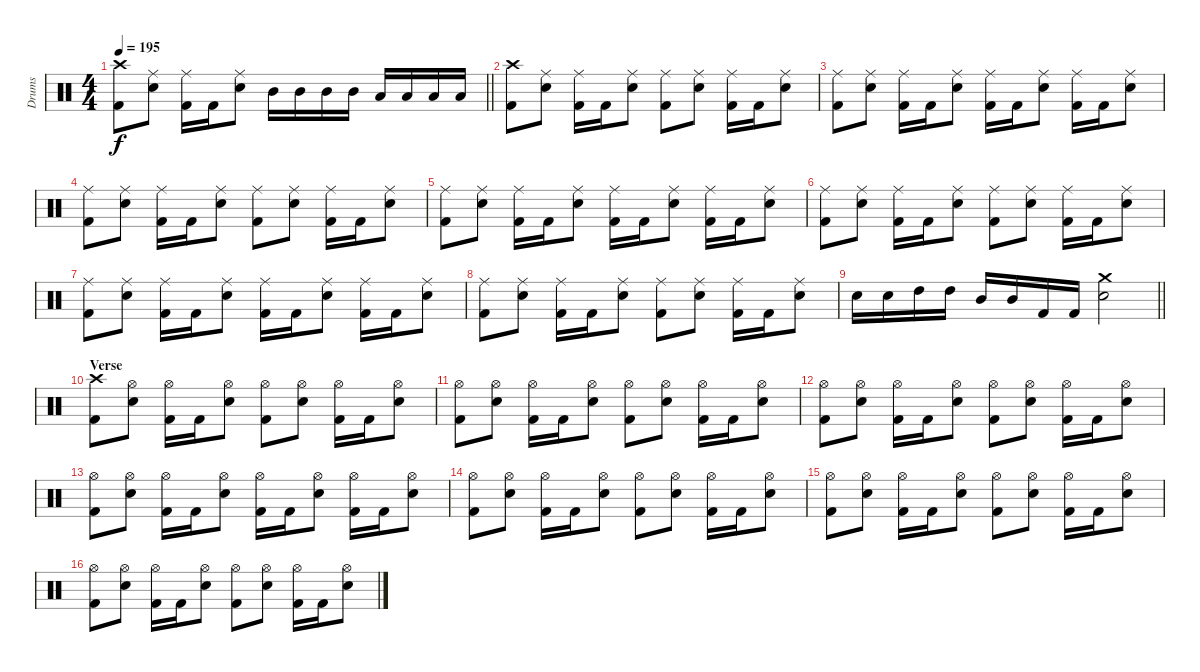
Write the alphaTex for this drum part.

\track ("Drums" "Drums") {instrument percussion}
\staff {score}
\articulation defaults
\ts (4 4)
\tempo 195
\clef neutral
\barLineRight lightlight
\ks c
("Crash high (hit)" "Kick (hit) 2").8{dy f} ("Ride (middle)" "Electric Snare (hit)").8 ("Ride (middle)" "Kick (hit) 2").16 "Kick (hit) 2".16 ("Ride (middle)" "Electric Snare (hit)").8 "Mid Tom (hit)".16 "Mid Tom (hit)".16 "Mid Tom (hit)".16 "Mid Tom (hit)".16 "Low Tom (hit)".16 "Low Tom (hit)".16 "Low Tom (hit)".16 "Low Tom (hit)".16 |
\section ("" "")
("Crash high (hit)" "Kick (hit) 2").8 ("Ride (middle)" "Electric Snare (hit)").8 ("Ride (middle)" "Kick (hit) 2").16 "Kick (hit) 2".16 ("Ride (middle)" "Electric Snare (hit)").8 ("Ride (middle)" "Kick (hit) 2").8 ("Ride (middle)" "Electric Snare (hit)").8 ("Ride (middle)" "Kick (hit) 2").16 "Kick (hit) 2".16 ("Ride (middle)" "Electric Snare (hit)").8 |
("Ride (middle)" "Kick (hit) 2").8 ("Ride (middle)" "Electric Snare (hit)").8 ("Ride (middle)" "Kick (hit) 2").16 "Kick (hit) 2".16 ("Ride (middle)" "Electric Snare (hit)").8 ("Ride (middle)" "Kick (hit) 2").16 "Kick (hit) 2".16 ("Ride (middle)" "Electric Snare (hit)").8 ("Ride (middle)" "Kick (hit) 2").16 "Kick (hit) 2".16 ("Ride (middle)" "Electric Snare (hit)").8 |
("Ride (middle)" "Kick (hit) 2").8 ("Ride (middle)" "Electric Snare (hit)").8 ("Ride (middle)" "Kick (hit) 2").16 "Kick (hit) 2".16 ("Ride (middle)" "Electric Snare (hit)").8 ("Ride (middle)" "Kick (hit) 2").8 ("Ride (middle)" "Electric Snare (hit)").8 ("Ride (middle)" "Kick (hit) 2").16 "Kick (hit) 2".16 ("Ride (middle)" "Electric Snare (hit)").8 |
("Ride (middle)" "Kick (hit) 2").8 ("Ride (middle)" "Electric Snare (hit)").8 ("Ride (middle)" "Kick (hit) 2").16 "Kick (hit) 2".16 ("Ride (middle)" "Electric Snare (hit)").8 ("Ride (middle)" "Kick (hit) 2").16 "Kick (hit) 2".16 ("Ride (middle)" "Electric Snare (hit)").8 ("Ride (middle)" "Kick (hit) 2").16 "Kick (hit) 2".16 ("Ride (middle)" "Electric Snare (hit)").8 |
("Ride (middle)" "Kick (hit) 2").8 ("Ride (middle)" "Electric Snare (hit)").8 ("Ride (middle)" "Kick (hit) 2").16 "Kick (hit) 2".16 ("Ride (middle)" "Electric Snare (hit)").8 ("Ride (middle)" "Kick (hit) 2").8 ("Ride (middle)" "Electric Snare (hit)").8 ("Ride (middle)" "Kick (hit) 2").16 "Kick (hit) 2".16 ("Ride (middle)" "Electric Snare (hit)").8 |
("Ride (middle)" "Kick (hit) 2").8 ("Ride (middle)" "Electric Snare (hit)").8 ("Ride (middle)" "Kick (hit) 2").16 "Kick (hit) 2".16 ("Ride (middle)" "Electric Snare (hit)").8 ("Ride (middle)" "Kick (hit) 2").16 "Kick (hit) 2".16 ("Ride (middle)" "Electric Snare (hit)").8 ("Ride (middle)" "Kick (hit) 2").16 "Kick (hit) 2".16 ("Ride (middle)" "Electric Snare (hit)").8 |
("Ride (middle)" "Kick (hit) 2").8 ("Ride (middle)" "Electric Snare (hit)").8 ("Ride (middle)" "Kick (hit) 2").16 "Kick (hit) 2".16 ("Ride (middle)" "Electric Snare (hit)").8 ("Ride (middle)" "Kick (hit) 2").8 ("Ride (middle)" "Electric Snare (hit)").8 ("Ride (middle)" "Kick (hit) 2").16 "Kick (hit) 2".16 ("Ride (middle)" "Electric Snare (hit)").8 |
\barLineRight lightlight "Electric Snare (hit)".16 "Electric Snare (hit)".16 "High Tom (hit)".16 "High Tom (hit)".16 "Mid Tom (hit)".16 "Mid Tom (hit)".16 "Kick (hit) 2".16 "Kick (hit) 2".16
("Crash medium (hit)" "Electric Snare (hit)").2 |
\section ("" "Verse")
("Crash high (hit)" "Kick (hit) 2").8 ("Hi-Hat (open)" "Electric Snare (hit)").8 ("Hi-Hat (open)" "Kick (hit) 2").16 "Kick (hit) 2".16 ("Hi-Hat (open)" "Electric Snare (hit)").8 ("Hi-Hat (open)" "Kick (hit) 2").8 ("Hi-Hat (open)" "Electric Snare (hit)").8 ("Hi-Hat (open)" "Kick (hit) 2").16 "Kick (hit) 2".16 ("Hi-Hat (open)" "Electric Snare (hit)").8 |
("Hi-Hat (open)" "Kick (hit) 2").8 ("Hi-Hat (open)" "Electric Snare (hit)").8 ("Hi-Hat (open)" "Kick (hit) 2").16 "Kick (hit) 2".16 ("Hi-Hat (open)" "Electric Snare (hit)").8 ("Hi-Hat (open)" "Kick (hit) 2").8 ("Hi-Hat (open)" "Electric Snare (hit)").8 ("Hi-Hat (open)" "Kick (hit) 2").16 "Kick (hit) 2".16 ("Hi-Hat (open)" "Electric Snare (hit)").8 |
("Hi-Hat (open)" "Kick (hit) 2").8 ("Hi-Hat (open)" "Electric Snare (hit)").8 ("Hi-Hat (open)" "Kick (hit) 2").16 "Kick (hit) 2".16 ("Hi-Hat (open)" "Electric Snare (hit)").8 ("Hi-Hat (open)" "Kick (hit) 2").8 ("Hi-Hat (open)" "Electric Snare (hit)").8 ("Hi-Hat (open)" "Kick (hit) 2").16 "Kick (hit) 2".16 ("Hi-Hat (open)" "Electric Snare (hit)").8 |
("Hi-Hat (open)" "Kick (hit) 2").8 ("Hi-Hat (open)" "Electric Snare (hit)").8 ("Hi-Hat (open)" "Kick (hit) 2").16 "Kick (hit) 2".16 ("Hi-Hat (open)" "Electric Snare (hit)").8 ("Hi-Hat (open)" "Kick (hit) 2").16 "Kick (hit) 2".16 ("Hi-Hat (open)" "Electric Snare (hit)").8 ("Hi-Hat (open)" "Kick (hit) 2").16 "Kick (hit) 2".16 ("Hi-Hat (open)" "Electric Snare (hit)").8 |
("Hi-Hat (open)" "Kick (hit) 2").8 ("Hi-Hat (open)" "Electric Snare (hit)").8 ("Hi-Hat (open)" "Kick (hit) 2").16 "Kick (hit) 2".16 ("Hi-Hat (open)" "Electric Snare (hit)").8 ("Hi-Hat (open)" "Kick (hit) 2").8 ("Hi-Hat (open)" "Electric Snare (hit)").8 ("Hi-Hat (open)" "Kick (hit) 2").16 "Kick (hit) 2".16 ("Hi-Hat (open)" "Electric Snare (hit)").8 |
("Hi-Hat (open)" "Kick (hit) 2").8 ("Hi-Hat (open)" "Electric Snare (hit)").8 ("Hi-Hat (open)" "Kick (hit) 2").16 "Kick (hit) 2".16 ("Hi-Hat (open)" "Electric Snare (hit)").8 ("Hi-Hat (open)" "Kick (hit) 2").8 ("Hi-Hat (open)" "Electric Snare (hit)").8 ("Hi-Hat (open)" "Kick (hit) 2").16 "Kick (hit) 2".16 ("Hi-Hat (open)" "Electric Snare (hit)").8 |
("Hi-Hat (open)" "Kick (hit) 2").8 ("Hi-Hat (open)" "Electric Snare (hit)").8 ("Hi-Hat (open)" "Kick (hit) 2").16 "Kick (hit) 2".16 ("Hi-Hat (open)" "Electric Snare (hit)").8 ("Hi-Hat (open)" "Kick (hit) 2").8 ("Hi-Hat (open)" "Electric Snare (hit)").8 ("Hi-Hat (open)" "Kick (hit) 2").16 "Kick (hit) 2".16 ("Hi-Hat (open)" "Electric Snare (hit)").8
